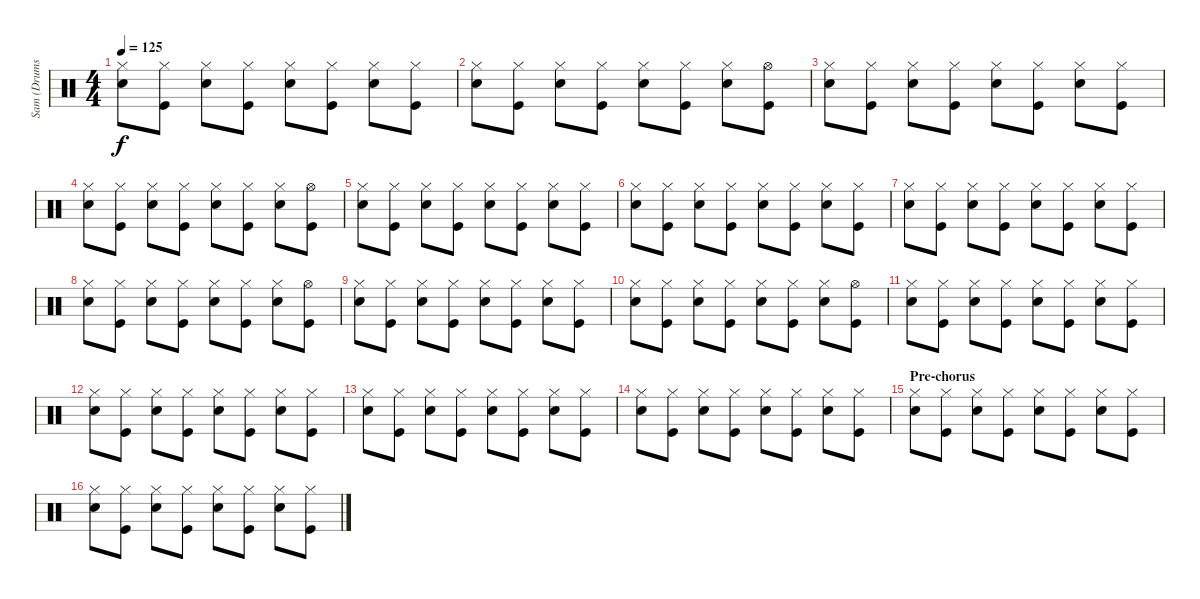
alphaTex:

\track ("Sam (Drums)" "Sam (Drums") {instrument percussion}
\staff {score}
\articulation defaults
\ts (4 4)
\tempo 125
\clef neutral
\ks c
("Hi-Hat (closed)" "Snare (hit) 2").8{dy f} ("Hi-Hat (closed)" "Kick (hit)").8 ("Hi-Hat (closed)" "Snare (hit) 2").8 ("Hi-Hat (closed)" "Kick (hit)").8 ("Hi-Hat (closed)" "Snare (hit) 2").8 ("Hi-Hat (closed)" "Kick (hit)").8 ("Hi-Hat (closed)" "Snare (hit) 2").8 ("Hi-Hat (closed)" "Kick (hit)").8 |
("Hi-Hat (closed)" "Snare (hit) 2").8 ("Hi-Hat (closed)" "Kick (hit)").8 ("Hi-Hat (closed)" "Snare (hit) 2").8 ("Hi-Hat (closed)" "Kick (hit)").8 ("Hi-Hat (closed)" "Snare (hit) 2").8 ("Hi-Hat (closed)" "Kick (hit)").8 ("Hi-Hat (closed)" "Snare (hit) 2").8 ("Hi-Hat (open)" "Kick (hit)").8 |
("Hi-Hat (closed)" "Snare (hit) 2").8 ("Hi-Hat (closed)" "Kick (hit)").8 ("Hi-Hat (closed)" "Snare (hit) 2").8 ("Hi-Hat (closed)" "Kick (hit)").8 ("Hi-Hat (closed)" "Snare (hit) 2").8 ("Hi-Hat (closed)" "Kick (hit)").8 ("Hi-Hat (closed)" "Snare (hit) 2").8 ("Hi-Hat (closed)" "Kick (hit)").8 |
("Hi-Hat (closed)" "Snare (hit) 2").8 ("Hi-Hat (closed)" "Kick (hit)").8 ("Hi-Hat (closed)" "Snare (hit) 2").8 ("Hi-Hat (closed)" "Kick (hit)").8 ("Hi-Hat (closed)" "Snare (hit) 2").8 ("Hi-Hat (closed)" "Kick (hit)").8 ("Hi-Hat (closed)" "Snare (hit) 2").8 ("Hi-Hat (open)" "Kick (hit)").8 |
("Hi-Hat (closed)" "Snare (hit) 2").8 ("Hi-Hat (closed)" "Kick (hit)").8 ("Hi-Hat (closed)" "Snare (hit) 2").8 ("Hi-Hat (closed)" "Kick (hit)").8 ("Hi-Hat (closed)" "Snare (hit) 2").8 ("Hi-Hat (closed)" "Kick (hit)").8 ("Hi-Hat (closed)" "Snare (hit) 2").8 ("Hi-Hat (closed)" "Kick (hit)").8 |
("Hi-Hat (closed)" "Snare (hit) 2").8 ("Hi-Hat (closed)" "Kick (hit)").8 ("Hi-Hat (closed)" "Snare (hit) 2").8 ("Hi-Hat (closed)" "Kick (hit)").8 ("Hi-Hat (closed)" "Snare (hit) 2").8 ("Hi-Hat (closed)" "Kick (hit)").8 ("Hi-Hat (closed)" "Snare (hit) 2").8 ("Hi-Hat (closed)" "Kick (hit)").8 |
("Hi-Hat (closed)" "Snare (hit) 2").8 ("Hi-Hat (closed)" "Kick (hit)").8 ("Hi-Hat (closed)" "Snare (hit) 2").8 ("Hi-Hat (closed)" "Kick (hit)").8 ("Hi-Hat (closed)" "Snare (hit) 2").8 ("Hi-Hat (closed)" "Kick (hit)").8 ("Hi-Hat (closed)" "Snare (hit) 2").8 ("Hi-Hat (closed)" "Kick (hit)").8 |
("Hi-Hat (closed)" "Snare (hit) 2").8 ("Hi-Hat (closed)" "Kick (hit)").8 ("Hi-Hat (closed)" "Snare (hit) 2").8 ("Hi-Hat (closed)" "Kick (hit)").8 ("Hi-Hat (closed)" "Snare (hit) 2").8 ("Hi-Hat (closed)" "Kick (hit)").8 ("Hi-Hat (closed)" "Snare (hit) 2").8 ("Hi-Hat (open)" "Kick (hit)").8 |
("Hi-Hat (closed)" "Snare (hit) 2").8 ("Hi-Hat (closed)" "Kick (hit)").8 ("Hi-Hat (closed)" "Snare (hit) 2").8 ("Hi-Hat (closed)" "Kick (hit)").8 ("Hi-Hat (closed)" "Snare (hit) 2").8 ("Hi-Hat (closed)" "Kick (hit)").8 ("Hi-Hat (closed)" "Snare (hit) 2").8 ("Hi-Hat (closed)" "Kick (hit)").8 |
("Hi-Hat (closed)" "Snare (hit) 2").8 ("Hi-Hat (closed)" "Kick (hit)").8 ("Hi-Hat (closed)" "Snare (hit) 2").8 ("Hi-Hat (closed)" "Kick (hit)").8 ("Hi-Hat (closed)" "Snare (hit) 2").8 ("Hi-Hat (closed)" "Kick (hit)").8 ("Hi-Hat (closed)" "Snare (hit) 2").8 ("Hi-Hat (open)" "Kick (hit)").8 |
("Hi-Hat (closed)" "Snare (hit) 2").8 ("Hi-Hat (closed)" "Kick (hit)").8 ("Hi-Hat (closed)" "Snare (hit) 2").8 ("Hi-Hat (closed)" "Kick (hit)").8 ("Hi-Hat (closed)" "Snare (hit) 2").8 ("Hi-Hat (closed)" "Kick (hit)").8 ("Hi-Hat (closed)" "Snare (hit) 2").8 ("Hi-Hat (closed)" "Kick (hit)").8 |
("Hi-Hat (closed)" "Snare (hit) 2").8 ("Hi-Hat (closed)" "Kick (hit)").8 ("Hi-Hat (closed)" "Snare (hit) 2").8 ("Hi-Hat (closed)" "Kick (hit)").8 ("Hi-Hat (closed)" "Snare (hit) 2").8 ("Hi-Hat (closed)" "Kick (hit)").8 ("Hi-Hat (closed)" "Snare (hit) 2").8 ("Hi-Hat (closed)" "Kick (hit)").8 |
("Hi-Hat (closed)" "Snare (hit) 2").8 ("Hi-Hat (closed)" "Kick (hit)").8 ("Hi-Hat (closed)" "Snare (hit) 2").8 ("Hi-Hat (closed)" "Kick (hit)").8 ("Hi-Hat (closed)" "Snare (hit) 2").8 ("Hi-Hat (closed)" "Kick (hit)").8 ("Hi-Hat (closed)" "Snare (hit) 2").8 ("Hi-Hat (closed)" "Kick (hit)").8 |
("Hi-Hat (closed)" "Snare (hit) 2").8 ("Hi-Hat (closed)" "Kick (hit)").8 ("Hi-Hat (closed)" "Snare (hit) 2").8 ("Hi-Hat (closed)" "Kick (hit)").8 ("Hi-Hat (closed)" "Snare (hit) 2").8 ("Hi-Hat (closed)" "Kick (hit)").8 ("Hi-Hat (closed)" "Snare (hit) 2").8 ("Hi-Hat (closed)" "Kick (hit)").8 |
\section ("" "Pre-chorus")
("Hi-Hat (closed)" "Snare (hit) 2").8 ("Hi-Hat (closed)" "Kick (hit)").8 ("Hi-Hat (closed)" "Snare (hit) 2").8 ("Hi-Hat (closed)" "Kick (hit)").8 ("Hi-Hat (closed)" "Snare (hit) 2").8 ("Hi-Hat (closed)" "Kick (hit)").8 ("Hi-Hat (closed)" "Snare (hit) 2").8 ("Hi-Hat (closed)" "Kick (hit)").8 |
("Hi-Hat (closed)" "Snare (hit) 2").8 ("Hi-Hat (closed)" "Kick (hit)").8 ("Hi-Hat (closed)" "Snare (hit) 2").8 ("Hi-Hat (closed)" "Kick (hit)").8 ("Hi-Hat (closed)" "Snare (hit) 2").8 ("Hi-Hat (closed)" "Kick (hit)").8 ("Hi-Hat (closed)" "Snare (hit) 2").8 ("Hi-Hat (closed)" "Kick (hit)").8
